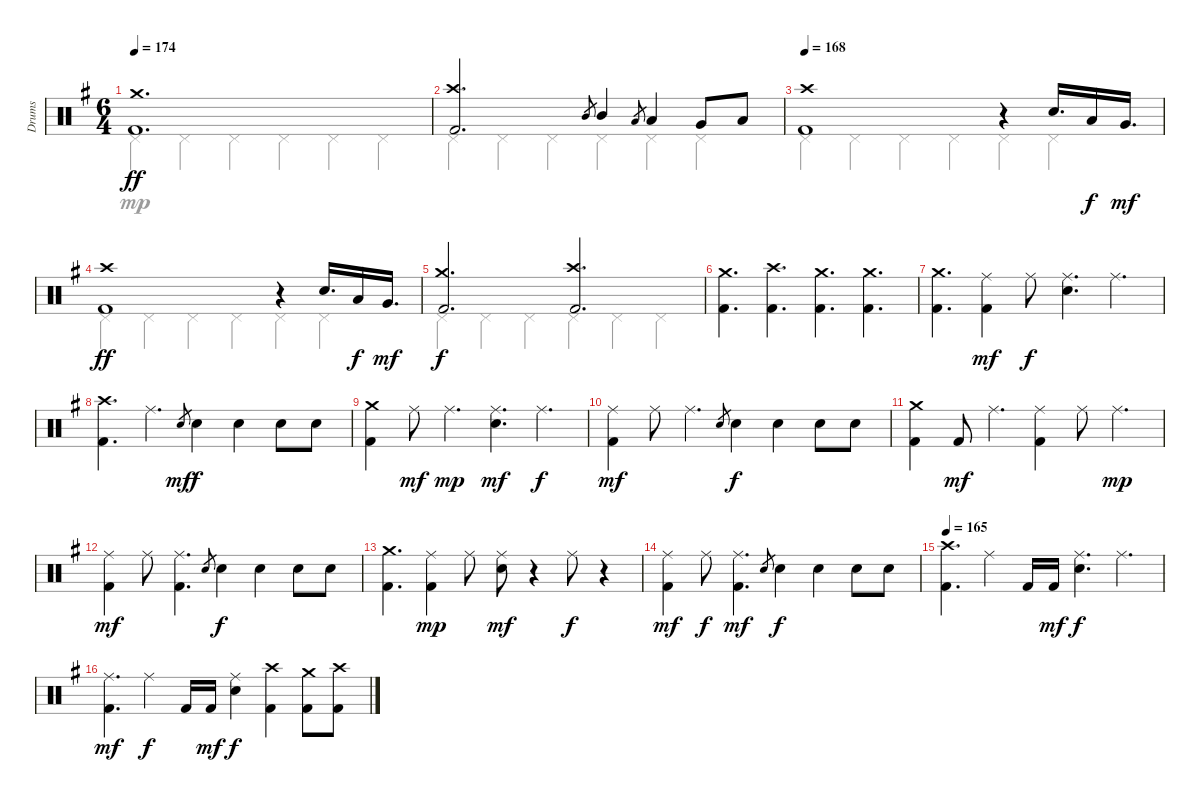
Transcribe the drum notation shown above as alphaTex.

\track ("Drums" "Drums") {instrument percussion}
\staff {score}
\articulation defaults
\voice
\ts (6 4)
\tempo 174
\clef neutral
\ks g
("Crash medium (hit)" "Kick (hit) 2").1{d dy ff} |
("Crash high (hit)" "Kick (hit) 2").2{d} "Mid Tom (hit)".8{gr} "Mid Tom (hit)".4 "Low Tom (hit)".8{gr} "Low Tom (hit)".4 "Very Low Tom (hit)".8 "Low Floor Tom (hit)".8 |
\tempo 168
("Crash high (hit)" "Kick (hit) 2").1 r.4 "Electric Snare (hit)".16{d} "Low Tom (hit)".16{dy f} "Very Low Tom (hit)".16{d dy mf} |
("Crash high (hit)" "Kick (hit) 2").1{dy ff} r.4 "Electric Snare (hit)".16{d} "Low Tom (hit)".16{dy f} "Very Low Tom (hit)".16{d dy mf} |
("Crash medium (hit)" "Kick (hit) 2").2{d dy f} ("Crash high (hit)" "Kick (hit) 2").2{d} |
("Crash medium (hit)" "Kick (hit) 2").4{d} ("Crash high (hit)" "Kick (hit) 2").4{d} ("Crash medium (hit)" "Kick (hit) 2").4{d} ("Crash medium (hit)" "Kick (hit) 2").4{d} |
("Crash medium (hit)" "Kick (hit) 2").4{d} ("Ride (middle)" "Kick (hit) 2").4{dy mf} "Ride (middle)".8{dy f} ("Ride (middle)" "Snare (hit) 2").4{d} "Ride (middle)".4{d} |
("Crash high (hit)" "Kick (hit) 2").4{d} "Ride (middle)".4{d} "Snare (hit) 2".8{gr dy mf} "Snare (hit) 2".4{dy f} "Snare (hit) 2".4 "Snare (hit) 2".8 "Snare (hit) 2".8 |
("Crash medium (hit)" "Kick (hit) 2").4 "Ride (middle)".8{dy mf} "Ride (middle)".4{d dy mp} ("Ride (middle)" "Snare (hit) 2").4{d dy mf} "Ride (middle)".4{d dy f} |
("Ride (middle)" "Kick (hit) 2").4{dy mf} "Ride (middle)".8 "Ride (middle)".4{d} "Snare (hit) 2".8{gr} "Snare (hit) 2".4{dy f} "Snare (hit) 2".4 "Snare (hit) 2".8 "Snare (hit) 2".8 |
("Crash medium (hit)" "Kick (hit) 2").4 "Kick (hit) 2".8{dy mf} "Ride (middle)".4{d} ("Ride (middle)" "Kick (hit) 2").4 "Ride (middle)".8 "Ride (middle)".4{d dy mp} |
("Ride (middle)" "Kick (hit) 2").4{dy mf} "Ride (middle)".8 ("Ride (middle)" "Kick (hit) 2").4{d} "Snare (hit) 2".8{gr} "Snare (hit) 2".4{dy f} "Snare (hit) 2".4 "Snare (hit) 2".8 "Snare (hit) 2".8 |
("Crash medium (hit)" "Kick (hit) 2").4{d} ("Ride (middle)" "Kick (hit) 2").4{dy mp} "Ride (middle)".8 ("Ride (middle)" "Snare (hit) 2").8{dy mf} r.4 "Ride (middle)".8{dy f} r.4 |
("Ride (middle)" "Kick (hit) 2").4{dy mf} "Ride (middle)".8{dy f} ("Ride (middle)" "Kick (hit) 2").4{d dy mf} "Snare (hit) 2".8{gr} "Snare (hit) 2".4{dy f} "Snare (hit) 2".4 "Snare (hit) 2".8 "Snare (hit) 2".8 |
\tempo 165
("Crash high (hit)" "Kick (hit) 2").4{d} "Ride (middle)".4 "Kick (hit) 2".16 "Kick (hit) 2".16{dy mf} ("Ride (middle)" "Snare (hit) 2").4{d dy f} "Ride (middle)".4{d} |
("Ride (middle)" "Kick (hit) 2").4{d dy mf} "Ride (middle)".4{dy f} "Kick (hit) 2".16 "Kick (hit) 2".16{dy mf} ("Ride (middle)" "Snare (hit) 2").4{dy f} ("Crash high (hit)" "Kick (hit) 2").4 ("Crash medium (hit)" "Kick (hit) 2").8 ("Crash high (hit)" "Kick (hit) 2").8
\voice
\clef neutral
\ottava regular
\simile none
\ks g "Pedal Hi-Hat (hit)".4{dy mp} "Pedal Hi-Hat (hit)".4 "Pedal Hi-Hat (hit)".4 "Pedal Hi-Hat (hit)".4 "Pedal Hi-Hat (hit)".4 "Pedal Hi-Hat (hit)".4
|
"Pedal Hi-Hat (hit)".4 "Pedal Hi-Hat (hit)".4 "Pedal Hi-Hat (hit)".4 "Pedal Hi-Hat (hit)".4 "Pedal Hi-Hat (hit)".4 "Pedal Hi-Hat (hit)".4 |
"Pedal Hi-Hat (hit)".4 "Pedal Hi-Hat (hit)".4 "Pedal Hi-Hat (hit)".4 "Pedal Hi-Hat (hit)".4 "Pedal Hi-Hat (hit)".4 "Pedal Hi-Hat (hit)".4 |
"Pedal Hi-Hat (hit)".4 "Pedal Hi-Hat (hit)".4 "Pedal Hi-Hat (hit)".4 "Pedal Hi-Hat (hit)".4 "Pedal Hi-Hat (hit)".4 "Pedal Hi-Hat (hit)".4 |
"Pedal Hi-Hat (hit)".4 "Pedal Hi-Hat (hit)".4 "Pedal Hi-Hat (hit)".4 "Pedal Hi-Hat (hit)".4 "Pedal Hi-Hat (hit)".4 "Pedal Hi-Hat (hit)".4 |
|
|
|
|
|
|
|
|
|
|
